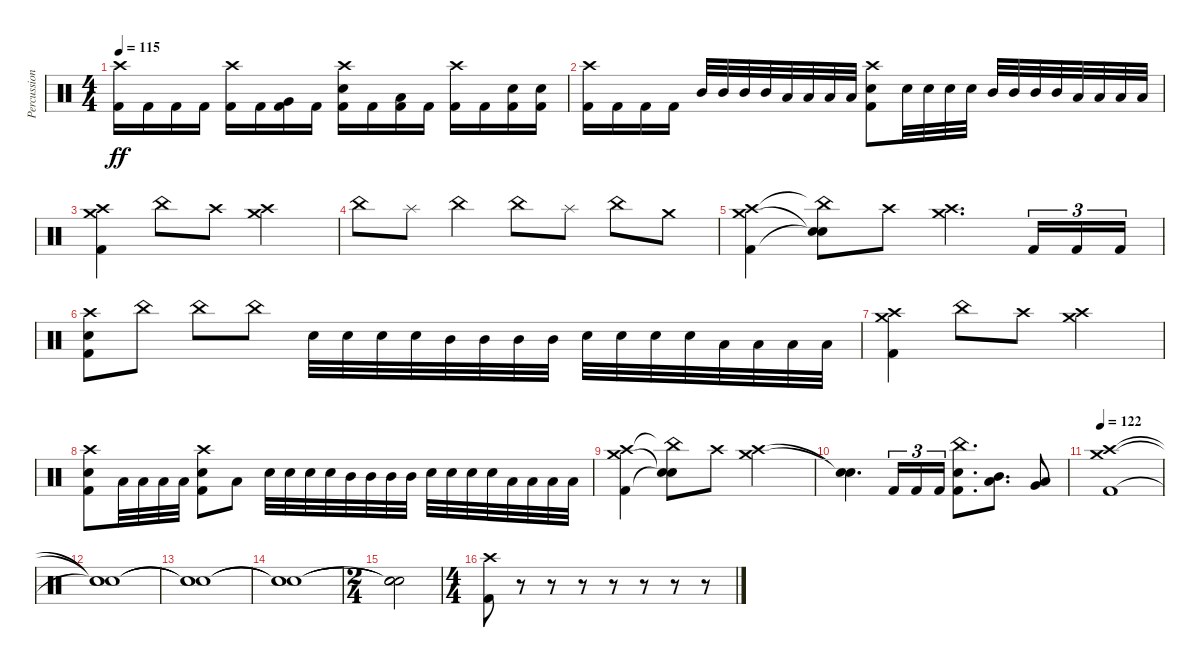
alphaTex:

\track ("Percussion" "Percussion") {instrument percussion}
\staff {score}
\articulation defaults
\ts (4 4)
\tempo 115
\clef neutral
\ks c
("Crash high (hit)" "Kick (hit) 2").16{dy ff} "Kick (hit) 2".16 "Kick (hit) 2".16 "Kick (hit) 2".16 ("Crash high (hit)" "Kick (hit) 2").16 "Kick (hit) 2".16 ("Very Low Tom (hit)" "Kick (hit) 2").16 "Kick (hit) 2".16 ("Crash high (hit)" "Electric Snare (hit)" "Kick (hit) 2").16 "Kick (hit) 2".16 ("Low Tom (hit)" "Kick (hit) 2").16 "Kick (hit) 2".16 ("Crash high (hit)" "Kick (hit) 2").16 "Kick (hit) 2".16 ("Electric Snare (hit)" "Kick (hit) 2").16 ("Electric Snare (hit)" "Kick (hit) 2").16 |
("Crash high (hit)" "Kick (hit) 2").16 "Kick (hit) 2".16 "Kick (hit) 2".16 "Kick (hit) 2".16 "Mid Tom (hit)".32 "Mid Tom (hit)".32 "Mid Tom (hit)".32 "Mid Tom (hit)".32 "Low Tom (hit)".32 "Low Tom (hit)".32 "Low Tom (hit)".32 "Low Tom (hit)".32 ("Crash high (hit)" "Electric Snare (hit)" "Kick (hit) 2").8 "Electric Snare (hit)".32 "Electric Snare (hit)".32 "Electric Snare (hit)".32 "Electric Snare (hit)".32 "Mid Tom (hit)".32 "Mid Tom (hit)".32 "Mid Tom (hit)".32 "Mid Tom (hit)".32 "Low Tom (hit)".32 "Low Tom (hit)".32 "Low Tom (hit)".32 "Low Tom (hit)".32 |
("Crash high (hit)" "Crash medium (hit)" "Kick (hit) 2").4 "China (hit)".8 "Crash high (hit)".8 ("Crash medium (hit)" "Crash high (hit)").2 |
"China (hit)".8 "Splash (hit)".8 "China (hit)".4 "China (hit)".8 "Splash (hit)".8 "China (hit)".8 "Crash medium (hit)".8 |
("Crash high (hit)" "Crash medium (hit)" "Kick (hit) 2").4 ("China (hit)"{t} "Snare (hit)"{t} "Snare (hit)"{t}).8 "Crash high (hit)".8 ("Crash medium (hit)" "Crash high (hit)").4{d} "Kick (hit) 2".16{tu (3 2)} "Kick (hit) 2".16{tu (3 2)} "Kick (hit) 2".16{tu (3 2)} |
("Crash high (hit)" "Electric Snare (hit)" "Kick (hit) 2").8 "China (hit)".8 "China (hit)".8 "China (hit)".8 "Electric Snare (hit)".32 "Electric Snare (hit)".32 "Electric Snare (hit)".32 "Electric Snare (hit)".32 "Mid Tom (hit)".32 "Mid Tom (hit)".32 "Mid Tom (hit)".32 "Mid Tom (hit)".32 "Electric Snare (hit)".32 "Electric Snare (hit)".32 "Electric Snare (hit)".32 "Electric Snare (hit)".32 "Low Tom (hit)".32 "Low Tom (hit)".32 "Low Tom (hit)".32 "Low Tom (hit)".32 |
("Crash high (hit)" "Crash medium (hit)" "Kick (hit) 2").4 "China (hit)".8 "Crash high (hit)".8 ("Crash medium (hit)" "Crash high (hit)").2 |
("Crash high (hit)" "Electric Snare (hit)" "Kick (hit) 2").8 "Low Tom (hit)".32 "Low Tom (hit)".32 "Low Tom (hit)".32 "Low Tom (hit)".32 ("Crash high (hit)" "Electric Snare (hit)" "Kick (hit) 2").8 "Low Tom (hit)".8 "Electric Snare (hit)".32 "Electric Snare (hit)".32 "Electric Snare (hit)".32 "Electric Snare (hit)".32 "Mid Tom (hit)".32 "Mid Tom (hit)".32 "Mid Tom (hit)".32 "Mid Tom (hit)".32 "Electric Snare (hit)".32 "Electric Snare (hit)".32 "Electric Snare (hit)".32 "Electric Snare (hit)".32 "Low Tom (hit)".32 "Low Tom (hit)".32 "Low Tom (hit)".32 "Low Tom (hit)".32 |
("Crash high (hit)" "Crash medium (hit)" "Kick (hit) 2").4 ("China (hit)"{t} "Snare (hit)"{t} "Snare (hit)"{t}).8 "Crash high (hit)".8 ("Crash medium (hit)" "Crash high (hit)").2 |
("Snare (hit)"{t} "Snare (hit)"{t}).4{d} "Kick (hit) 2".16{tu (3 2)} "Kick (hit) 2".16{tu (3 2)} "Kick (hit) 2".16{tu (3 2)} ("China (hit)" "Electric Snare (hit)" "Kick (hit) 2").8{d} ("Mid Tom (hit)" "Low Tom (hit)").8{d} ("Low Tom (hit)" "Very Low Tom (hit)").8 |
\tempo 122
("Crash high (hit)" "Crash medium (hit)" "Kick (hit) 2").1 |
("Snare (hit)"{t} "Snare (hit)"{t} "Snare (hit)"{t}).1 |
("Snare (hit)"{t} "Snare (hit)"{t} "Snare (hit)"{t}).1 |
("Snare (hit)"{t} "Snare (hit)"{t} "Snare (hit)"{t}).1 |
\ts (2 4)
("Snare (hit)"{t} "Snare (hit)"{t} "Snare (hit)"{t}).2 |
\ts (4 4)
("Crash high (hit)" "Kick (hit) 2").8 r.8{volume 0} r.8 r.8 r.8 r.8 r.8 r.8
